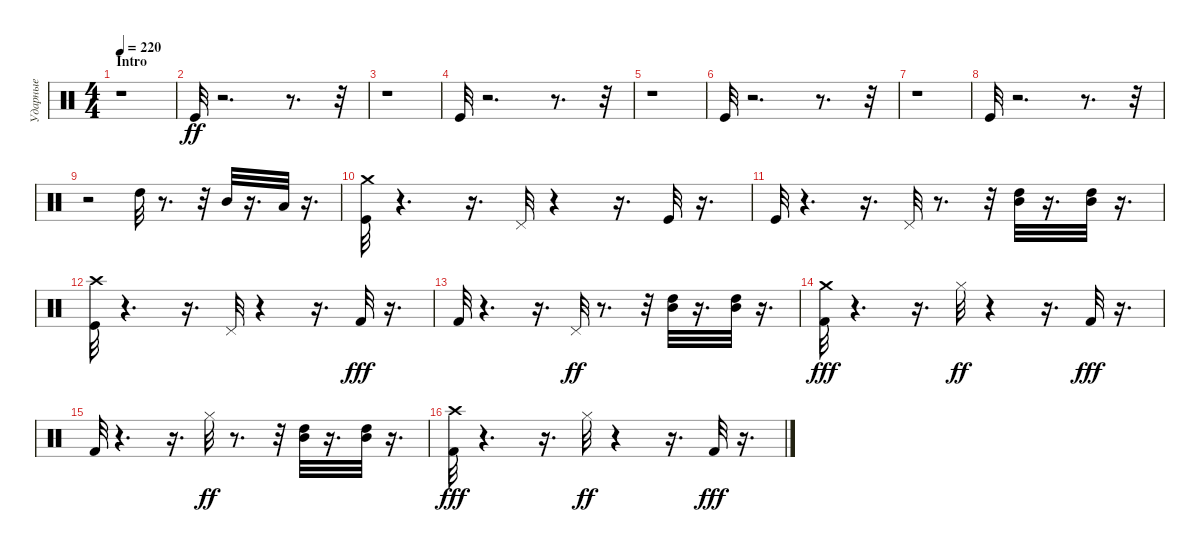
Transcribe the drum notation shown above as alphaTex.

\track ("Ударные" "Ударные") {instrument percussion}
\staff {score}
\articulation defaults
\ts (4 4)
\section ("" "Intro")
\tempo 220
\clef neutral
\ks c
r.1{dy ff} |
"Kick (hit)".32 r.2{d} r.8{d} r.32 |
r.1 |
"Kick (hit)".32 r.2{d} r.8{d} r.32 |
r.1 |
"Kick (hit)".32 r.2{d} r.8{d} r.32 |
r.1 |
"Kick (hit)".32 r.2{d} r.8{d} r.32 |
r.2 "High Tom (hit)".32 r.8{d} r.32 "Mid Tom (hit)".32 r.16{d} "Low Tom (hit)".32 r.16{d} |
("Crash medium (hit)" "Kick (hit)").32 r.4{d} r.16{d} "Pedal Hi-Hat (hit)".32 r.4 r.16{d} "Kick (hit)".32 r.16{d} |
"Kick (hit)".32 r.4{d} r.16{d} "Pedal Hi-Hat (hit)".32 r.8{d} r.32 ("Mid Tom (hit)" "High Tom (hit)").32 r.16{d} ("Mid Tom (hit)" "High Tom (hit)").32 r.16{d} |
("Crash high (hit)" "Kick (hit)").32 r.4{d} r.16{d} "Pedal Hi-Hat (hit)".32 r.4 r.16{d} "Kick (hit) 2".32{dy fff} r.16{d} |
"Kick (hit) 2".32 r.4{d} r.16{d} "Pedal Hi-Hat (hit)".32{dy ff} r.8{d} r.32 ("High Tom (hit)" "Mid Tom (hit)").32 r.16{d} ("High Tom (hit)" "Mid Tom (hit)").32 r.16{d} |
("Crash medium (hit)" "Kick (hit) 2").32{dy fff} r.4{d} r.16{d} "Hi-Hat (closed)".32{dy ff} r.4 r.16{d} "Kick (hit) 2".32{dy fff} r.16{d} |
"Kick (hit) 2".32 r.4{d} r.16{d} "Hi-Hat (closed)".32{dy ff} r.8{d} r.32 ("Mid Tom (hit)" "High Tom (hit)").32 r.16{d} ("Mid Tom (hit)" "High Tom (hit)").32 r.16{d} |
("Crash high (hit)" "Kick (hit) 2").32{dy fff} r.4{d} r.16{d} "Hi-Hat (closed)".32{dy ff} r.4 r.16{d} "Kick (hit) 2".32{dy fff} r.16{d}
